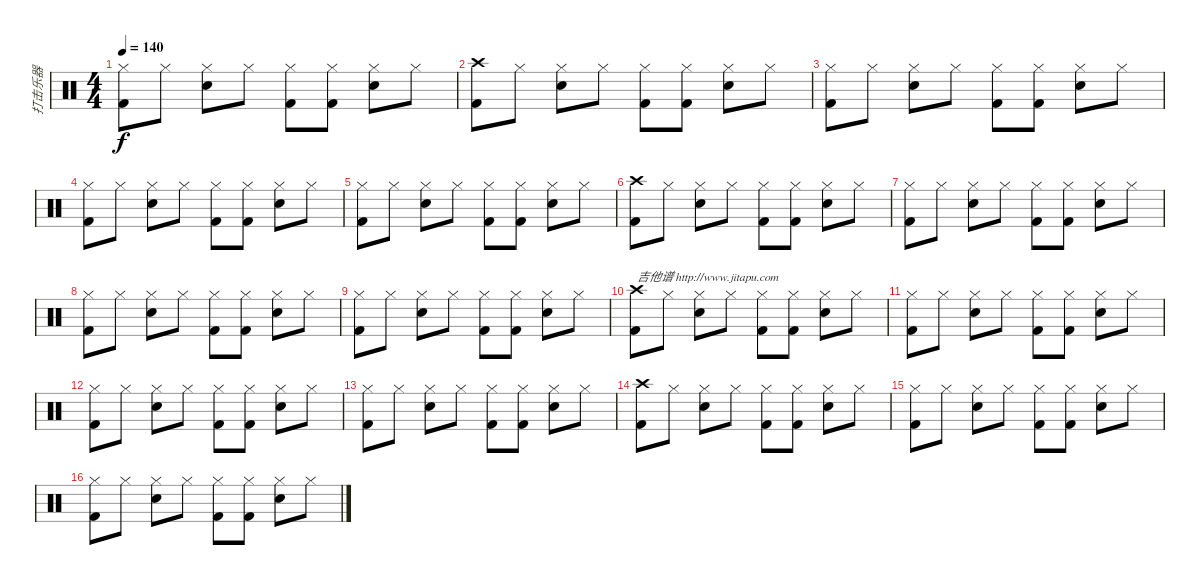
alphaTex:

\track ("打击乐器" "打击乐器") {instrument percussion}
\staff {score}
\articulation defaults
\ts (4 4)
\tempo 140
\clef neutral
\ks c
("Hi-Hat (closed)" "Kick (hit) 2").8{dy f} "Hi-Hat (closed)".8 ("Hi-Hat (closed)" "Electric Snare (hit)").8 "Hi-Hat (closed)".8 ("Hi-Hat (closed)" "Kick (hit) 2").8 ("Hi-Hat (closed)" "Kick (hit) 2").8 ("Hi-Hat (closed)" "Electric Snare (hit)").8 "Hi-Hat (closed)".8 |
("Crash high (hit)" "Kick (hit) 2").8 "Hi-Hat (closed)".8 ("Hi-Hat (closed)" "Electric Snare (hit)").8 "Hi-Hat (closed)".8 ("Hi-Hat (closed)" "Kick (hit) 2").8 ("Hi-Hat (closed)" "Kick (hit) 2").8 ("Hi-Hat (closed)" "Electric Snare (hit)").8 "Hi-Hat (closed)".8 |
("Hi-Hat (closed)" "Kick (hit) 2").8 "Hi-Hat (closed)".8 ("Hi-Hat (closed)" "Electric Snare (hit)").8 "Hi-Hat (closed)".8 ("Hi-Hat (closed)" "Kick (hit) 2").8 ("Hi-Hat (closed)" "Kick (hit) 2").8 ("Hi-Hat (closed)" "Electric Snare (hit)").8 "Hi-Hat (closed)".8 |
("Hi-Hat (closed)" "Kick (hit) 2").8 "Hi-Hat (closed)".8 ("Hi-Hat (closed)" "Electric Snare (hit)").8 "Hi-Hat (closed)".8 ("Hi-Hat (closed)" "Kick (hit) 2").8 ("Hi-Hat (closed)" "Kick (hit) 2").8 ("Hi-Hat (closed)" "Electric Snare (hit)").8 "Hi-Hat (closed)".8 |
("Hi-Hat (closed)" "Kick (hit) 2").8 "Hi-Hat (closed)".8 ("Hi-Hat (closed)" "Electric Snare (hit)").8 "Hi-Hat (closed)".8 ("Hi-Hat (closed)" "Kick (hit) 2").8 ("Hi-Hat (closed)" "Kick (hit) 2").8 ("Hi-Hat (closed)" "Electric Snare (hit)").8 "Hi-Hat (closed)".8 |
("Crash high (hit)" "Kick (hit) 2").8 "Hi-Hat (closed)".8 ("Hi-Hat (closed)" "Electric Snare (hit)").8 "Hi-Hat (closed)".8 ("Hi-Hat (closed)" "Kick (hit) 2").8 ("Hi-Hat (closed)" "Kick (hit) 2").8 ("Hi-Hat (closed)" "Electric Snare (hit)").8 "Hi-Hat (closed)".8 |
("Hi-Hat (closed)" "Kick (hit) 2").8 "Hi-Hat (closed)".8 ("Hi-Hat (closed)" "Electric Snare (hit)").8 "Hi-Hat (closed)".8 ("Hi-Hat (closed)" "Kick (hit) 2").8 ("Hi-Hat (closed)" "Kick (hit) 2").8 ("Hi-Hat (closed)" "Electric Snare (hit)").8 "Hi-Hat (closed)".8 |
("Hi-Hat (closed)" "Kick (hit) 2").8 "Hi-Hat (closed)".8 ("Hi-Hat (closed)" "Electric Snare (hit)").8 "Hi-Hat (closed)".8 ("Hi-Hat (closed)" "Kick (hit) 2").8 ("Hi-Hat (closed)" "Kick (hit) 2").8 ("Hi-Hat (closed)" "Electric Snare (hit)").8 "Hi-Hat (closed)".8 |
("Hi-Hat (closed)" "Kick (hit) 2").8 "Hi-Hat (closed)".8 ("Hi-Hat (closed)" "Electric Snare (hit)").8 "Hi-Hat (closed)".8 ("Hi-Hat (closed)" "Kick (hit) 2").8 ("Hi-Hat (closed)" "Kick (hit) 2").8 ("Hi-Hat (closed)" "Electric Snare (hit)").8 "Hi-Hat (closed)".8 |
("Crash high (hit)" "Kick (hit) 2").8{txt "吉他谱 http://www.jitapu.com"} "Hi-Hat (closed)".8 ("Hi-Hat (closed)" "Electric Snare (hit)").8 "Hi-Hat (closed)".8 ("Hi-Hat (closed)" "Kick (hit) 2").8 ("Hi-Hat (closed)" "Kick (hit) 2").8 ("Hi-Hat (closed)" "Electric Snare (hit)").8 "Hi-Hat (closed)".8 |
("Hi-Hat (closed)" "Kick (hit) 2").8 "Hi-Hat (closed)".8 ("Hi-Hat (closed)" "Electric Snare (hit)").8 "Hi-Hat (closed)".8 ("Hi-Hat (closed)" "Kick (hit) 2").8 ("Hi-Hat (closed)" "Kick (hit) 2").8 ("Hi-Hat (closed)" "Electric Snare (hit)").8 "Hi-Hat (closed)".8 |
("Hi-Hat (closed)" "Kick (hit) 2").8 "Hi-Hat (closed)".8 ("Hi-Hat (closed)" "Electric Snare (hit)").8 "Hi-Hat (closed)".8 ("Hi-Hat (closed)" "Kick (hit) 2").8 ("Hi-Hat (closed)" "Kick (hit) 2").8 ("Hi-Hat (closed)" "Electric Snare (hit)").8 "Hi-Hat (closed)".8 |
("Hi-Hat (closed)" "Kick (hit) 2").8 "Hi-Hat (closed)".8 ("Hi-Hat (closed)" "Electric Snare (hit)").8 "Hi-Hat (closed)".8 ("Hi-Hat (closed)" "Kick (hit) 2").8 ("Hi-Hat (closed)" "Kick (hit) 2").8 ("Hi-Hat (closed)" "Electric Snare (hit)").8 "Hi-Hat (closed)".8 |
("Crash high (hit)" "Kick (hit) 2").8 "Hi-Hat (closed)".8 ("Hi-Hat (closed)" "Electric Snare (hit)").8 "Hi-Hat (closed)".8 ("Hi-Hat (closed)" "Kick (hit) 2").8 ("Hi-Hat (closed)" "Kick (hit) 2").8 ("Hi-Hat (closed)" "Electric Snare (hit)").8 "Hi-Hat (closed)".8 |
("Hi-Hat (closed)" "Kick (hit) 2").8 "Hi-Hat (closed)".8 ("Hi-Hat (closed)" "Electric Snare (hit)").8 "Hi-Hat (closed)".8 ("Hi-Hat (closed)" "Kick (hit) 2").8 ("Hi-Hat (closed)" "Kick (hit) 2").8 ("Hi-Hat (closed)" "Electric Snare (hit)").8 "Hi-Hat (closed)".8 |
("Hi-Hat (closed)" "Kick (hit) 2").8 "Hi-Hat (closed)".8 ("Hi-Hat (closed)" "Electric Snare (hit)").8 "Hi-Hat (closed)".8 ("Hi-Hat (closed)" "Kick (hit) 2").8 ("Hi-Hat (closed)" "Kick (hit) 2").8 ("Hi-Hat (closed)" "Electric Snare (hit)").8 "Hi-Hat (closed)".8
